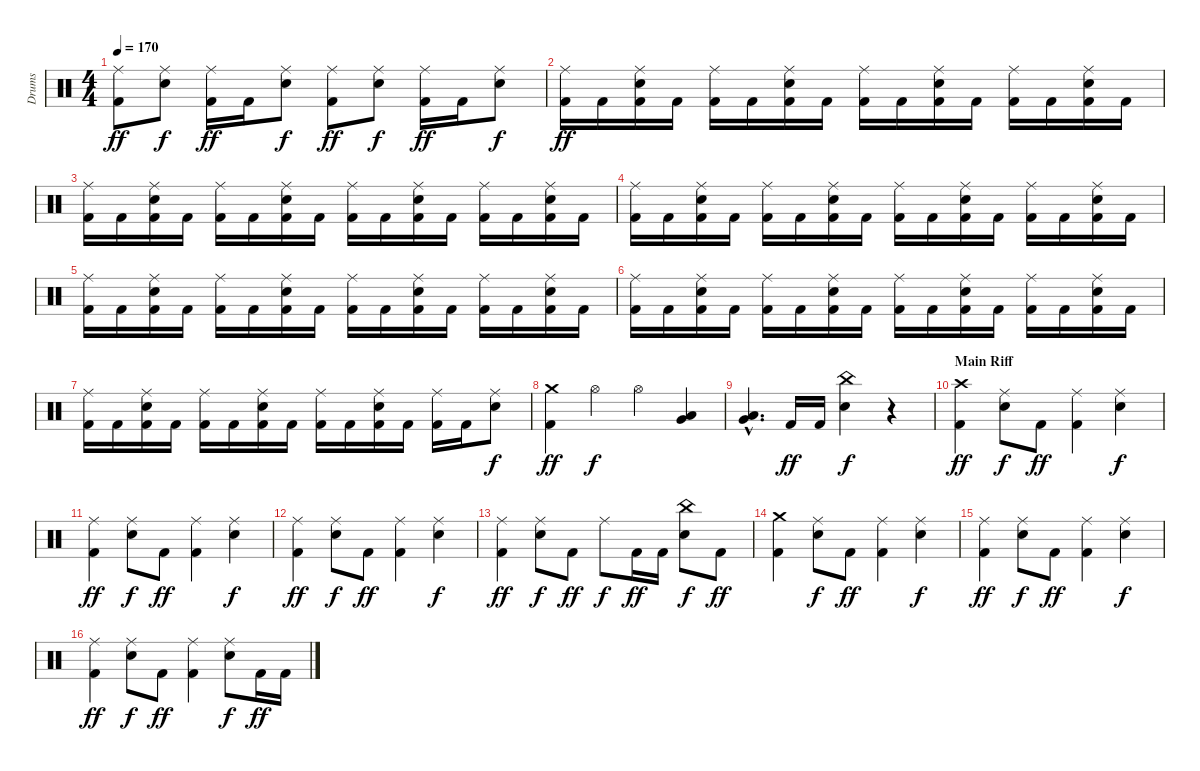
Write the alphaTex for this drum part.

\track ("Drums" "Drums") {instrument percussion}
\staff {score}
\articulation defaults
\ts (4 4)
\tempo 170
\clef neutral
\ks c
("Ride (middle)" "Kick (hit) 2").8{dy ff} ("Ride (middle)" "Electric Snare (hit)").8{dy f} ("Ride (middle)" "Kick (hit) 2").16{dy ff} "Kick (hit) 2".16 ("Ride (middle)" "Electric Snare (hit)").8{dy f} ("Ride (middle)" "Kick (hit) 2").8{dy ff} ("Ride (middle)" "Electric Snare (hit)").8{dy f} ("Ride (middle)" "Kick (hit) 2").16{dy ff} "Kick (hit) 2".16 ("Ride (middle)" "Electric Snare (hit)").8{dy f} |
("Ride (middle)" "Kick (hit) 2").16{dy ff} "Kick (hit) 2".16 ("Ride (middle)" "Electric Snare (hit)" "Kick (hit) 2").16 "Kick (hit) 2".16 ("Ride (middle)" "Kick (hit) 2").16 "Kick (hit) 2".16 ("Ride (middle)" "Electric Snare (hit)" "Kick (hit) 2").16 "Kick (hit) 2".16 ("Ride (middle)" "Kick (hit) 2").16 "Kick (hit) 2".16 ("Ride (middle)" "Electric Snare (hit)" "Kick (hit) 2").16 "Kick (hit) 2".16 ("Ride (middle)" "Kick (hit) 2").16 "Kick (hit) 2".16 ("Ride (middle)" "Electric Snare (hit)" "Kick (hit) 2").16 "Kick (hit) 2".16 |
("Ride (middle)" "Kick (hit) 2").16 "Kick (hit) 2".16 ("Ride (middle)" "Electric Snare (hit)" "Kick (hit) 2").16 "Kick (hit) 2".16 ("Ride (middle)" "Kick (hit) 2").16 "Kick (hit) 2".16 ("Ride (middle)" "Electric Snare (hit)" "Kick (hit) 2").16 "Kick (hit) 2".16 ("Ride (middle)" "Kick (hit) 2").16 "Kick (hit) 2".16 ("Ride (middle)" "Electric Snare (hit)" "Kick (hit) 2").16 "Kick (hit) 2".16 ("Ride (middle)" "Kick (hit) 2").16 "Kick (hit) 2".16 ("Ride (middle)" "Electric Snare (hit)" "Kick (hit) 2").16 "Kick (hit) 2".16 |
("Ride (middle)" "Kick (hit) 2").16 "Kick (hit) 2".16 ("Ride (middle)" "Electric Snare (hit)" "Kick (hit) 2").16 "Kick (hit) 2".16 ("Ride (middle)" "Kick (hit) 2").16 "Kick (hit) 2".16 ("Ride (middle)" "Electric Snare (hit)" "Kick (hit) 2").16 "Kick (hit) 2".16 ("Ride (middle)" "Kick (hit) 2").16 "Kick (hit) 2".16 ("Ride (middle)" "Electric Snare (hit)" "Kick (hit) 2").16 "Kick (hit) 2".16 ("Ride (middle)" "Kick (hit) 2").16 "Kick (hit) 2".16 ("Ride (middle)" "Electric Snare (hit)" "Kick (hit) 2").16 "Kick (hit) 2".16 |
("Ride (middle)" "Kick (hit) 2").16 "Kick (hit) 2".16 ("Ride (middle)" "Electric Snare (hit)" "Kick (hit) 2").16 "Kick (hit) 2".16 ("Ride (middle)" "Kick (hit) 2").16 "Kick (hit) 2".16 ("Ride (middle)" "Electric Snare (hit)" "Kick (hit) 2").16 "Kick (hit) 2".16 ("Ride (middle)" "Kick (hit) 2").16 "Kick (hit) 2".16 ("Ride (middle)" "Electric Snare (hit)" "Kick (hit) 2").16 "Kick (hit) 2".16 ("Ride (middle)" "Kick (hit) 2").16 "Kick (hit) 2".16 ("Ride (middle)" "Electric Snare (hit)" "Kick (hit) 2").16 "Kick (hit) 2".16 |
("Ride (middle)" "Kick (hit) 2").16 "Kick (hit) 2".16 ("Ride (middle)" "Electric Snare (hit)" "Kick (hit) 2").16 "Kick (hit) 2".16 ("Ride (middle)" "Kick (hit) 2").16 "Kick (hit) 2".16 ("Ride (middle)" "Electric Snare (hit)" "Kick (hit) 2").16 "Kick (hit) 2".16 ("Ride (middle)" "Kick (hit) 2").16 "Kick (hit) 2".16 ("Ride (middle)" "Electric Snare (hit)" "Kick (hit) 2").16 "Kick (hit) 2".16 ("Ride (middle)" "Kick (hit) 2").16 "Kick (hit) 2".16 ("Ride (middle)" "Electric Snare (hit)" "Kick (hit) 2").16 "Kick (hit) 2".16 |
("Ride (middle)" "Kick (hit) 2").16 "Kick (hit) 2".16 ("Ride (middle)" "Electric Snare (hit)" "Kick (hit) 2").16 "Kick (hit) 2".16 ("Ride (middle)" "Kick (hit) 2").16 "Kick (hit) 2".16 ("Ride (middle)" "Electric Snare (hit)" "Kick (hit) 2").16 "Kick (hit) 2".16 ("Ride (middle)" "Kick (hit) 2").16 "Kick (hit) 2".16 ("Ride (middle)" "Electric Snare (hit)" "Kick (hit) 2").16 "Kick (hit) 2".16 ("Ride (middle)" "Kick (hit) 2").16 "Kick (hit) 2".16 ("Ride (middle)" "Electric Snare (hit)").8{dy f} |
("Crash medium (hit)" "Kick (hit) 2").4{dy ff} "Hi-Hat (open)".4{dy f} "Hi-Hat (open)".4 ("Very Low Tom (hit)" "Low Floor Tom (hit)").4 |
("Very Low Tom (hit)"{hac} "Low Floor Tom (hit)"{hac}).4{d} "Kick (hit) 2".16{dy ff} "Kick (hit) 2".16 ("China (hit)" "Electric Snare (hit)").4{dy f} r.4 |
\section ("" "Main Riff")
("Crash high (hit)" "Kick (hit) 2").4{dy ff} ("Ride (middle)" "Electric Snare (hit)").8{dy f} "Kick (hit) 2".8{dy ff} ("Ride (middle)" "Kick (hit) 2").4 ("Ride (middle)" "Electric Snare (hit)").4{dy f} |
("Ride (middle)" "Kick (hit) 2").4{dy ff} ("Ride (middle)" "Electric Snare (hit)").8{dy f} "Kick (hit) 2".8{dy ff} ("Ride (middle)" "Kick (hit) 2").4 ("Ride (middle)" "Electric Snare (hit)").4{dy f} |
("Ride (middle)" "Kick (hit) 2").4{dy ff} ("Ride (middle)" "Electric Snare (hit)").8{dy f} "Kick (hit) 2".8{dy ff} ("Ride (middle)" "Kick (hit) 2").4 ("Ride (middle)" "Electric Snare (hit)").4{dy f} |
("Ride (middle)" "Kick (hit) 2").4{dy ff} ("Ride (middle)" "Electric Snare (hit)").8{dy f} "Kick (hit) 2".8{dy ff} "Ride (middle)".8{dy f} "Kick (hit) 2".16{dy ff} "Kick (hit) 2".16 ("China (hit)" "Electric Snare (hit)").8{dy f} "Kick (hit) 2".8{dy ff} |
("Crash medium (hit)" "Kick (hit) 2").4 ("Ride (middle)" "Electric Snare (hit)").8{dy f} "Kick (hit) 2".8{dy ff} ("Ride (middle)" "Kick (hit) 2").4 ("Ride (middle)" "Electric Snare (hit)").4{dy f} |
("Ride (middle)" "Kick (hit) 2").4{dy ff} ("Ride (middle)" "Electric Snare (hit)").8{dy f} "Kick (hit) 2".8{dy ff} ("Ride (middle)" "Kick (hit) 2").4 ("Ride (middle)" "Electric Snare (hit)").4{dy f} |
("Ride (middle)" "Kick (hit) 2").4{dy ff} ("Ride (middle)" "Electric Snare (hit)").8{dy f} "Kick (hit) 2".8{dy ff} ("Ride (middle)" "Kick (hit) 2").4 ("Ride (middle)" "Electric Snare (hit)").8{dy f} "Kick (hit) 2".16{dy ff} "Kick (hit) 2".16
